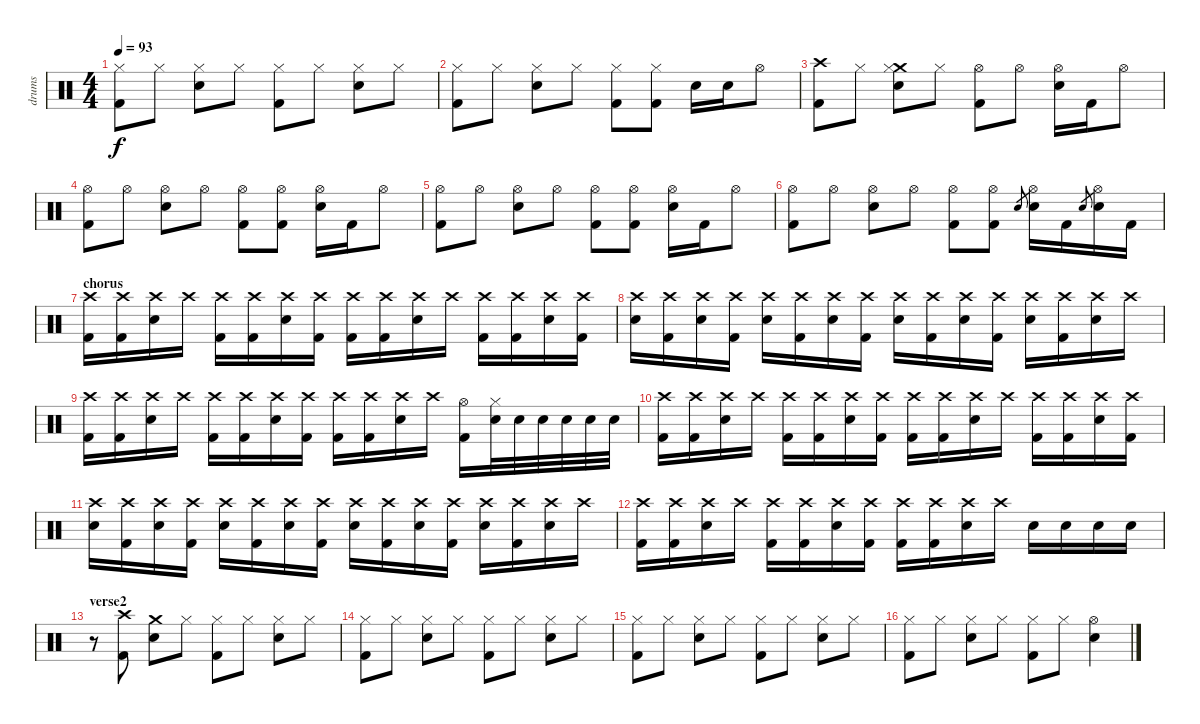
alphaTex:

\track ("drums" "drums") {instrument percussion}
\staff {score}
\articulation defaults
\ts (4 4)
\tempo 93
\clef neutral
\ks c
("Hi-Hat (closed)" "Kick (hit) 2").8{dy f} "Hi-Hat (closed)".8 ("Hi-Hat (closed)" "Electric Snare (hit)").8 "Hi-Hat (closed)".8 ("Hi-Hat (closed)" "Kick (hit) 2").8 "Hi-Hat (closed)".8 ("Hi-Hat (closed)" "Electric Snare (hit)").8 "Hi-Hat (closed)".8 |
("Hi-Hat (closed)" "Kick (hit) 2").8 "Hi-Hat (closed)".8 ("Hi-Hat (closed)" "Electric Snare (hit)").8 "Hi-Hat (closed)".8 ("Hi-Hat (closed)" "Kick (hit) 2").8 ("Hi-Hat (closed)" "Kick (hit) 2").8 "Electric Snare (hit)".16 "Electric Snare (hit)".16 "Hi-Hat (open)".8 |
("Crash high (hit)" "Kick (hit) 2").8 "Hi-Hat (closed)".8 ("Crash medium (hit)" "Hi-Hat (closed)" "Electric Snare (hit)").8 "Hi-Hat (closed)".8 ("Hi-Hat (open)" "Kick (hit) 2").8 "Hi-Hat (open)".8 ("Hi-Hat (open)" "Electric Snare (hit)").16 "Kick (hit) 2".16 "Hi-Hat (open)".8 |
("Hi-Hat (open)" "Kick (hit) 2").8 "Hi-Hat (open)".8 ("Hi-Hat (open)" "Electric Snare (hit)").8 "Hi-Hat (open)".8 ("Hi-Hat (open)" "Kick (hit) 2").8 ("Hi-Hat (open)" "Kick (hit) 2").8 ("Hi-Hat (open)" "Electric Snare (hit)").16 "Kick (hit) 2".16 "Hi-Hat (open)".8 |
("Hi-Hat (open)" "Kick (hit) 2").8 "Hi-Hat (open)".8 ("Hi-Hat (open)" "Electric Snare (hit)").8 "Hi-Hat (open)".8 ("Hi-Hat (open)" "Kick (hit) 2").8 ("Hi-Hat (open)" "Kick (hit) 2").8 ("Hi-Hat (open)" "Electric Snare (hit)").16 "Kick (hit) 2".16 "Hi-Hat (open)".8 |
("Hi-Hat (open)" "Kick (hit) 2").8 "Hi-Hat (open)".8 ("Hi-Hat (open)" "Electric Snare (hit)").8 "Hi-Hat (open)".8 ("Hi-Hat (open)" "Kick (hit) 2").8 ("Hi-Hat (open)" "Kick (hit) 2").8 "Electric Snare (hit)".8{gr} ("Hi-Hat (open)" "Electric Snare (hit)").16 "Kick (hit) 2".16 "Electric Snare (hit)".8{gr} ("Hi-Hat (open)" "Electric Snare (hit)").16 "Kick (hit) 2".16 |
\section ("" "chorus")
("Crash high (hit)" "Kick (hit) 2").16 ("Crash high (hit)" "Kick (hit) 2").16 ("Crash high (hit)" "Electric Snare (hit)").16 "Crash high (hit)".16 ("Crash high (hit)" "Kick (hit) 2").16 ("Crash high (hit)" "Kick (hit) 2").16 ("Crash high (hit)" "Electric Snare (hit)").16 ("Crash high (hit)" "Kick (hit) 2").16 ("Crash high (hit)" "Kick (hit) 2").16 ("Crash high (hit)" "Kick (hit) 2").16 ("Crash high (hit)" "Electric Snare (hit)").16 "Crash high (hit)".16 ("Crash high (hit)" "Kick (hit) 2").16 ("Crash high (hit)" "Kick (hit) 2").16 ("Crash high (hit)" "Electric Snare (hit)").16 ("Crash high (hit)" "Kick (hit) 2").16 |
("Crash high (hit)" "Electric Snare (hit)").16 ("Crash high (hit)" "Kick (hit) 2").16 ("Crash high (hit)" "Electric Snare (hit)").16 ("Crash high (hit)" "Kick (hit) 2").16 ("Crash high (hit)" "Electric Snare (hit)").16 ("Crash high (hit)" "Kick (hit) 2").16 ("Crash high (hit)" "Electric Snare (hit)").16 ("Crash high (hit)" "Kick (hit) 2").16 ("Crash high (hit)" "Electric Snare (hit)").16 ("Crash high (hit)" "Kick (hit) 2").16 ("Crash high (hit)" "Electric Snare (hit)").16 ("Crash high (hit)" "Kick (hit) 2").16 ("Crash high (hit)" "Electric Snare (hit)").16 ("Crash high (hit)" "Kick (hit) 2").16 ("Crash high (hit)" "Electric Snare (hit)").16 "Crash high (hit)".16 |
("Crash high (hit)" "Kick (hit) 2").16 ("Crash high (hit)" "Kick (hit) 2").16 ("Crash high (hit)" "Electric Snare (hit)").16 "Crash high (hit)".16 ("Crash high (hit)" "Kick (hit) 2").16 ("Crash high (hit)" "Kick (hit) 2").16 ("Crash high (hit)" "Electric Snare (hit)").16 ("Crash high (hit)" "Kick (hit) 2").16 ("Crash high (hit)" "Kick (hit) 2").16 ("Crash high (hit)" "Kick (hit) 2").16 ("Crash high (hit)" "Electric Snare (hit)").16 "Crash high (hit)".16 ("Hi-Hat (open)" "Kick (hit) 2").16 ("Hi-Hat (closed)" "Electric Snare (hit)").32 "Electric Snare (hit)".32 "Electric Snare (hit)".32 "Electric Snare (hit)".32 "Electric Snare (hit)".32 "Electric Snare (hit)".32 |
("Crash high (hit)" "Kick (hit) 2").16 ("Crash high (hit)" "Kick (hit) 2").16 ("Crash high (hit)" "Electric Snare (hit)").16 "Crash high (hit)".16 ("Crash high (hit)" "Kick (hit) 2").16 ("Crash high (hit)" "Kick (hit) 2").16 ("Crash high (hit)" "Electric Snare (hit)").16 ("Crash high (hit)" "Kick (hit) 2").16 ("Crash high (hit)" "Kick (hit) 2").16 ("Crash high (hit)" "Kick (hit) 2").16 ("Crash high (hit)" "Electric Snare (hit)").16 "Crash high (hit)".16 ("Crash high (hit)" "Kick (hit) 2").16 ("Crash high (hit)" "Kick (hit) 2").16 ("Crash high (hit)" "Electric Snare (hit)").16 ("Crash high (hit)" "Kick (hit) 2").16 |
("Crash high (hit)" "Electric Snare (hit)").16 ("Crash high (hit)" "Kick (hit) 2").16 ("Crash high (hit)" "Electric Snare (hit)").16 ("Crash high (hit)" "Kick (hit) 2").16 ("Crash high (hit)" "Electric Snare (hit)").16 ("Crash high (hit)" "Kick (hit) 2").16 ("Crash high (hit)" "Electric Snare (hit)").16 ("Crash high (hit)" "Kick (hit) 2").16 ("Crash high (hit)" "Electric Snare (hit)").16 ("Crash high (hit)" "Kick (hit) 2").16 ("Crash high (hit)" "Electric Snare (hit)").16 ("Crash high (hit)" "Kick (hit) 2").16 ("Crash high (hit)" "Electric Snare (hit)").16 ("Crash high (hit)" "Kick (hit) 2").16 ("Crash high (hit)" "Electric Snare (hit)").16 "Crash high (hit)".16 |
("Crash high (hit)" "Kick (hit) 2").16 ("Crash high (hit)" "Kick (hit) 2").16 ("Crash high (hit)" "Electric Snare (hit)").16 "Crash high (hit)".16 ("Crash high (hit)" "Kick (hit) 2").16 ("Crash high (hit)" "Kick (hit) 2").16 ("Crash high (hit)" "Electric Snare (hit)").16 ("Crash high (hit)" "Kick (hit) 2").16 ("Crash high (hit)" "Kick (hit) 2").16 ("Crash high (hit)" "Kick (hit) 2").16 ("Crash high (hit)" "Electric Snare (hit)").16 "Crash high (hit)".16 "Electric Snare (hit)".16 "Electric Snare (hit)".16 "Electric Snare (hit)".16 "Electric Snare (hit)".16 |
\section ("" "verse2")
r.8 ("Crash high (hit)" "Kick (hit) 2").8 ("Crash medium (hit)" "Electric Snare (hit)").8 "Hi-Hat (closed)".8 ("Hi-Hat (closed)" "Kick (hit) 2").8 "Hi-Hat (closed)".8 ("Hi-Hat (closed)" "Electric Snare (hit)").8 "Hi-Hat (closed)".8 |
("Hi-Hat (closed)" "Kick (hit) 2").8 "Hi-Hat (closed)".8 ("Hi-Hat (closed)" "Electric Snare (hit)").8 "Hi-Hat (closed)".8 ("Hi-Hat (closed)" "Kick (hit) 2").8 "Hi-Hat (closed)".8 ("Hi-Hat (closed)" "Electric Snare (hit)").8 "Hi-Hat (closed)".8 |
("Hi-Hat (closed)" "Kick (hit) 2").8 "Hi-Hat (closed)".8 ("Hi-Hat (closed)" "Electric Snare (hit)").8 "Hi-Hat (closed)".8 ("Hi-Hat (closed)" "Kick (hit) 2").8 "Hi-Hat (closed)".8 ("Hi-Hat (closed)" "Electric Snare (hit)").8 "Hi-Hat (closed)".8 |
("Hi-Hat (closed)" "Kick (hit) 2").8 "Hi-Hat (closed)".8 ("Hi-Hat (closed)" "Electric Snare (hit)").8 "Hi-Hat (closed)".8 ("Hi-Hat (closed)" "Kick (hit) 2").8 "Hi-Hat (closed)".8 ("Hi-Hat (open)" "Electric Snare (hit)").4
